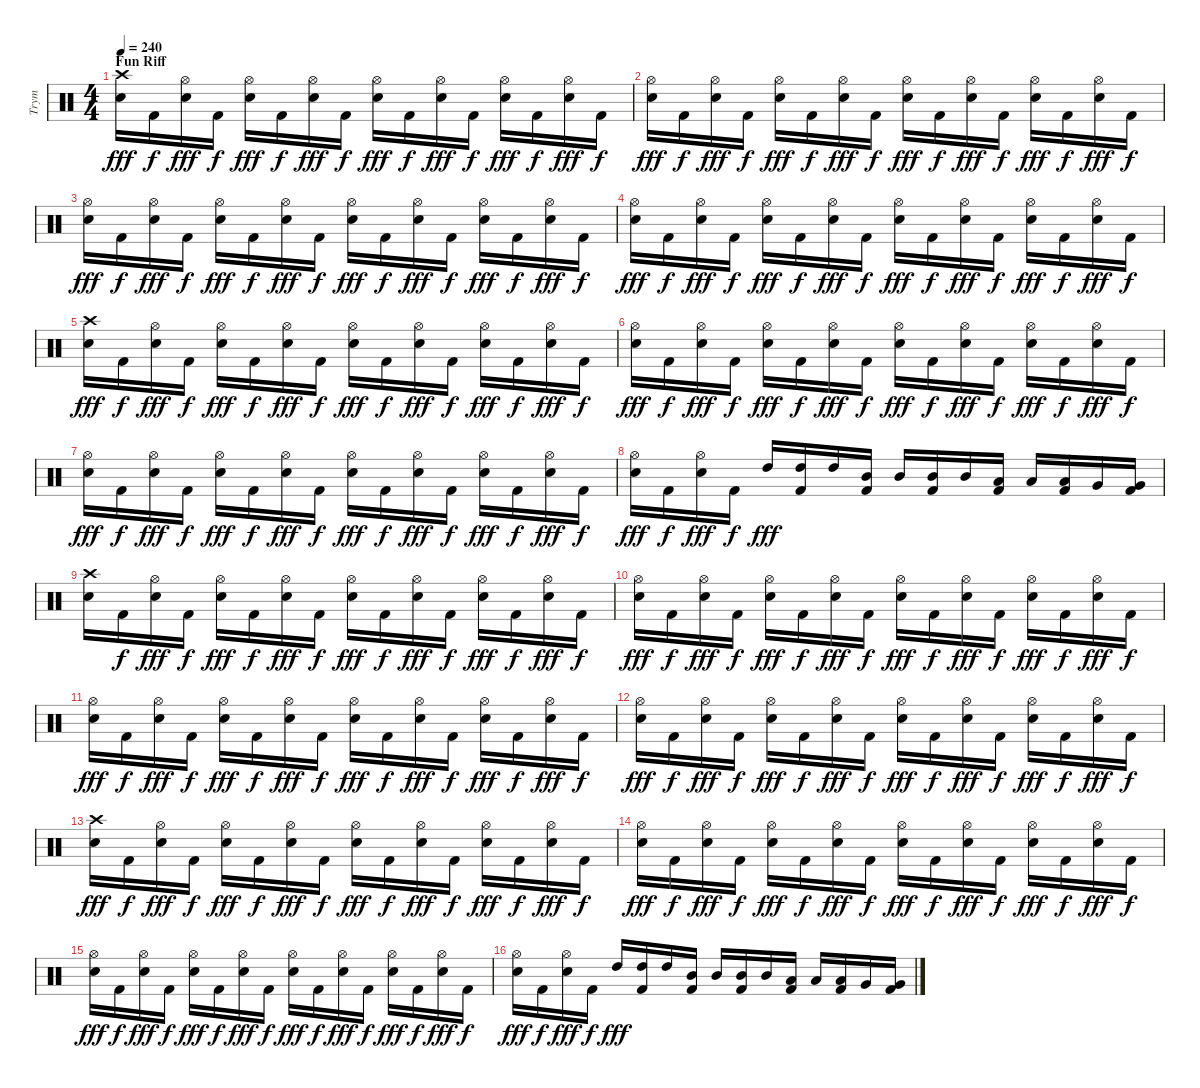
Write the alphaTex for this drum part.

\track ("Trym" "Trym") {instrument percussion}
\staff {score}
\articulation defaults
\ts (4 4)
\section ("" "Fun Riff")
\tempo 240
\clef neutral
\ks c
("Crash high (hit)" "Electric Snare (hit)").16{dy fff} "Kick (hit) 2".16{dy f} ("Hi-Hat (open)" "Electric Snare (hit)").16{dy fff} "Kick (hit) 2".16{dy f} ("Hi-Hat (open)" "Electric Snare (hit)").16{dy fff} "Kick (hit) 2".16{dy f} ("Hi-Hat (open)" "Electric Snare (hit)").16{dy fff} "Kick (hit) 2".16{dy f} ("Hi-Hat (open)" "Electric Snare (hit)").16{dy fff} "Kick (hit) 2".16{dy f} ("Hi-Hat (open)" "Electric Snare (hit)").16{dy fff} "Kick (hit) 2".16{dy f} ("Hi-Hat (open)" "Electric Snare (hit)").16{dy fff} "Kick (hit) 2".16{dy f} ("Hi-Hat (open)" "Electric Snare (hit)").16{dy fff} "Kick (hit) 2".16{dy f} |
("Hi-Hat (open)" "Electric Snare (hit)").16{dy fff} "Kick (hit) 2".16{dy f} ("Hi-Hat (open)" "Electric Snare (hit)").16{dy fff} "Kick (hit) 2".16{dy f} ("Hi-Hat (open)" "Electric Snare (hit)").16{dy fff} "Kick (hit) 2".16{dy f} ("Hi-Hat (open)" "Electric Snare (hit)").16{dy fff} "Kick (hit) 2".16{dy f} ("Hi-Hat (open)" "Electric Snare (hit)").16{dy fff} "Kick (hit) 2".16{dy f} ("Hi-Hat (open)" "Electric Snare (hit)").16{dy fff} "Kick (hit) 2".16{dy f} ("Hi-Hat (open)" "Electric Snare (hit)").16{dy fff} "Kick (hit) 2".16{dy f} ("Hi-Hat (open)" "Electric Snare (hit)").16{dy fff} "Kick (hit) 2".16{dy f} |
("Hi-Hat (open)" "Electric Snare (hit)").16{dy fff} "Kick (hit) 2".16{dy f} ("Hi-Hat (open)" "Electric Snare (hit)").16{dy fff} "Kick (hit) 2".16{dy f} ("Hi-Hat (open)" "Electric Snare (hit)").16{dy fff} "Kick (hit) 2".16{dy f} ("Hi-Hat (open)" "Electric Snare (hit)").16{dy fff} "Kick (hit) 2".16{dy f} ("Hi-Hat (open)" "Electric Snare (hit)").16{dy fff} "Kick (hit) 2".16{dy f} ("Hi-Hat (open)" "Electric Snare (hit)").16{dy fff} "Kick (hit) 2".16{dy f} ("Hi-Hat (open)" "Electric Snare (hit)").16{dy fff} "Kick (hit) 2".16{dy f} ("Hi-Hat (open)" "Electric Snare (hit)").16{dy fff} "Kick (hit) 2".16{dy f} |
("Hi-Hat (open)" "Electric Snare (hit)").16{dy fff} "Kick (hit) 2".16{dy f} ("Hi-Hat (open)" "Electric Snare (hit)").16{dy fff} "Kick (hit) 2".16{dy f} ("Hi-Hat (open)" "Electric Snare (hit)").16{dy fff} "Kick (hit) 2".16{dy f} ("Hi-Hat (open)" "Electric Snare (hit)").16{dy fff} "Kick (hit) 2".16{dy f} ("Hi-Hat (open)" "Electric Snare (hit)").16{dy fff} "Kick (hit) 2".16{dy f} ("Hi-Hat (open)" "Electric Snare (hit)").16{dy fff} "Kick (hit) 2".16{dy f} ("Hi-Hat (open)" "Electric Snare (hit)").16{dy fff} "Kick (hit) 2".16{dy f} ("Hi-Hat (open)" "Electric Snare (hit)").16{dy fff} "Kick (hit) 2".16{dy f} |
("Crash high (hit)" "Electric Snare (hit)").16{dy fff} "Kick (hit) 2".16{dy f} ("Hi-Hat (open)" "Electric Snare (hit)").16{dy fff} "Kick (hit) 2".16{dy f} ("Hi-Hat (open)" "Electric Snare (hit)").16{dy fff} "Kick (hit) 2".16{dy f} ("Hi-Hat (open)" "Electric Snare (hit)").16{dy fff} "Kick (hit) 2".16{dy f} ("Hi-Hat (open)" "Electric Snare (hit)").16{dy fff} "Kick (hit) 2".16{dy f} ("Hi-Hat (open)" "Electric Snare (hit)").16{dy fff} "Kick (hit) 2".16{dy f} ("Hi-Hat (open)" "Electric Snare (hit)").16{dy fff} "Kick (hit) 2".16{dy f} ("Hi-Hat (open)" "Electric Snare (hit)").16{dy fff} "Kick (hit) 2".16{dy f} |
("Hi-Hat (open)" "Electric Snare (hit)").16{dy fff} "Kick (hit) 2".16{dy f} ("Hi-Hat (open)" "Electric Snare (hit)").16{dy fff} "Kick (hit) 2".16{dy f} ("Hi-Hat (open)" "Electric Snare (hit)").16{dy fff} "Kick (hit) 2".16{dy f} ("Hi-Hat (open)" "Electric Snare (hit)").16{dy fff} "Kick (hit) 2".16{dy f} ("Hi-Hat (open)" "Electric Snare (hit)").16{dy fff} "Kick (hit) 2".16{dy f} ("Hi-Hat (open)" "Electric Snare (hit)").16{dy fff} "Kick (hit) 2".16{dy f} ("Hi-Hat (open)" "Electric Snare (hit)").16{dy fff} "Kick (hit) 2".16{dy f} ("Hi-Hat (open)" "Electric Snare (hit)").16{dy fff} "Kick (hit) 2".16{dy f} |
("Hi-Hat (open)" "Electric Snare (hit)").16{dy fff} "Kick (hit) 2".16{dy f} ("Hi-Hat (open)" "Electric Snare (hit)").16{dy fff} "Kick (hit) 2".16{dy f} ("Hi-Hat (open)" "Electric Snare (hit)").16{dy fff} "Kick (hit) 2".16{dy f} ("Hi-Hat (open)" "Electric Snare (hit)").16{dy fff} "Kick (hit) 2".16{dy f} ("Hi-Hat (open)" "Electric Snare (hit)").16{dy fff} "Kick (hit) 2".16{dy f} ("Hi-Hat (open)" "Electric Snare (hit)").16{dy fff} "Kick (hit) 2".16{dy f} ("Hi-Hat (open)" "Electric Snare (hit)").16{dy fff} "Kick (hit) 2".16{dy f} ("Hi-Hat (open)" "Electric Snare (hit)").16{dy fff} "Kick (hit) 2".16{dy f} |
("Hi-Hat (open)" "Electric Snare (hit)").16{dy fff} "Kick (hit) 2".16{dy f} ("Hi-Hat (open)" "Electric Snare (hit)").16{dy fff} "Kick (hit) 2".16{dy f} "High Tom (hit)".16{dy fff} ("High Tom (hit)" "Kick (hit) 2").16 "High Tom (hit)".16 ("Mid Tom (hit)" "Kick (hit) 2").16 "Mid Tom (hit)".16 ("Mid Tom (hit)" "Kick (hit) 2").16 "Mid Tom (hit)".16 ("Low Tom (hit)" "Kick (hit) 2").16 "Low Tom (hit)".16 ("Low Tom (hit)" "Kick (hit) 2").16 "Very Low Tom (hit)".16 ("Very Low Tom (hit)" "Kick (hit) 2").16 |
("Crash high (hit)" "Electric Snare (hit)").16 "Kick (hit) 2".16{dy f} ("Hi-Hat (open)" "Electric Snare (hit)").16{dy fff} "Kick (hit) 2".16{dy f} ("Hi-Hat (open)" "Electric Snare (hit)").16{dy fff} "Kick (hit) 2".16{dy f} ("Hi-Hat (open)" "Electric Snare (hit)").16{dy fff} "Kick (hit) 2".16{dy f} ("Hi-Hat (open)" "Electric Snare (hit)").16{dy fff} "Kick (hit) 2".16{dy f} ("Hi-Hat (open)" "Electric Snare (hit)").16{dy fff} "Kick (hit) 2".16{dy f} ("Hi-Hat (open)" "Electric Snare (hit)").16{dy fff} "Kick (hit) 2".16{dy f} ("Hi-Hat (open)" "Electric Snare (hit)").16{dy fff} "Kick (hit) 2".16{dy f} |
("Hi-Hat (open)" "Electric Snare (hit)").16{dy fff} "Kick (hit) 2".16{dy f} ("Hi-Hat (open)" "Electric Snare (hit)").16{dy fff} "Kick (hit) 2".16{dy f} ("Hi-Hat (open)" "Electric Snare (hit)").16{dy fff} "Kick (hit) 2".16{dy f} ("Hi-Hat (open)" "Electric Snare (hit)").16{dy fff} "Kick (hit) 2".16{dy f} ("Hi-Hat (open)" "Electric Snare (hit)").16{dy fff} "Kick (hit) 2".16{dy f} ("Hi-Hat (open)" "Electric Snare (hit)").16{dy fff} "Kick (hit) 2".16{dy f} ("Hi-Hat (open)" "Electric Snare (hit)").16{dy fff} "Kick (hit) 2".16{dy f} ("Hi-Hat (open)" "Electric Snare (hit)").16{dy fff} "Kick (hit) 2".16{dy f} |
("Hi-Hat (open)" "Electric Snare (hit)").16{dy fff} "Kick (hit) 2".16{dy f} ("Hi-Hat (open)" "Electric Snare (hit)").16{dy fff} "Kick (hit) 2".16{dy f} ("Hi-Hat (open)" "Electric Snare (hit)").16{dy fff} "Kick (hit) 2".16{dy f} ("Hi-Hat (open)" "Electric Snare (hit)").16{dy fff} "Kick (hit) 2".16{dy f} ("Hi-Hat (open)" "Electric Snare (hit)").16{dy fff} "Kick (hit) 2".16{dy f} ("Hi-Hat (open)" "Electric Snare (hit)").16{dy fff} "Kick (hit) 2".16{dy f} ("Hi-Hat (open)" "Electric Snare (hit)").16{dy fff} "Kick (hit) 2".16{dy f} ("Hi-Hat (open)" "Electric Snare (hit)").16{dy fff} "Kick (hit) 2".16{dy f} |
("Hi-Hat (open)" "Electric Snare (hit)").16{dy fff} "Kick (hit) 2".16{dy f} ("Hi-Hat (open)" "Electric Snare (hit)").16{dy fff} "Kick (hit) 2".16{dy f} ("Hi-Hat (open)" "Electric Snare (hit)").16{dy fff} "Kick (hit) 2".16{dy f} ("Hi-Hat (open)" "Electric Snare (hit)").16{dy fff} "Kick (hit) 2".16{dy f} ("Hi-Hat (open)" "Electric Snare (hit)").16{dy fff} "Kick (hit) 2".16{dy f} ("Hi-Hat (open)" "Electric Snare (hit)").16{dy fff} "Kick (hit) 2".16{dy f} ("Hi-Hat (open)" "Electric Snare (hit)").16{dy fff} "Kick (hit) 2".16{dy f} ("Hi-Hat (open)" "Electric Snare (hit)").16{dy fff} "Kick (hit) 2".16{dy f} |
("Crash high (hit)" "Electric Snare (hit)").16{dy fff} "Kick (hit) 2".16{dy f} ("Hi-Hat (open)" "Electric Snare (hit)").16{dy fff} "Kick (hit) 2".16{dy f} ("Hi-Hat (open)" "Electric Snare (hit)").16{dy fff} "Kick (hit) 2".16{dy f} ("Hi-Hat (open)" "Electric Snare (hit)").16{dy fff} "Kick (hit) 2".16{dy f} ("Hi-Hat (open)" "Electric Snare (hit)").16{dy fff} "Kick (hit) 2".16{dy f} ("Hi-Hat (open)" "Electric Snare (hit)").16{dy fff} "Kick (hit) 2".16{dy f} ("Hi-Hat (open)" "Electric Snare (hit)").16{dy fff} "Kick (hit) 2".16{dy f} ("Hi-Hat (open)" "Electric Snare (hit)").16{dy fff} "Kick (hit) 2".16{dy f} |
("Hi-Hat (open)" "Electric Snare (hit)").16{dy fff} "Kick (hit) 2".16{dy f} ("Hi-Hat (open)" "Electric Snare (hit)").16{dy fff} "Kick (hit) 2".16{dy f} ("Hi-Hat (open)" "Electric Snare (hit)").16{dy fff} "Kick (hit) 2".16{dy f} ("Hi-Hat (open)" "Electric Snare (hit)").16{dy fff} "Kick (hit) 2".16{dy f} ("Hi-Hat (open)" "Electric Snare (hit)").16{dy fff} "Kick (hit) 2".16{dy f} ("Hi-Hat (open)" "Electric Snare (hit)").16{dy fff} "Kick (hit) 2".16{dy f} ("Hi-Hat (open)" "Electric Snare (hit)").16{dy fff} "Kick (hit) 2".16{dy f} ("Hi-Hat (open)" "Electric Snare (hit)").16{dy fff} "Kick (hit) 2".16{dy f} |
("Hi-Hat (open)" "Electric Snare (hit)").16{dy fff} "Kick (hit) 2".16{dy f} ("Hi-Hat (open)" "Electric Snare (hit)").16{dy fff} "Kick (hit) 2".16{dy f} ("Hi-Hat (open)" "Electric Snare (hit)").16{dy fff} "Kick (hit) 2".16{dy f} ("Hi-Hat (open)" "Electric Snare (hit)").16{dy fff} "Kick (hit) 2".16{dy f} ("Hi-Hat (open)" "Electric Snare (hit)").16{dy fff} "Kick (hit) 2".16{dy f} ("Hi-Hat (open)" "Electric Snare (hit)").16{dy fff} "Kick (hit) 2".16{dy f} ("Hi-Hat (open)" "Electric Snare (hit)").16{dy fff} "Kick (hit) 2".16{dy f} ("Hi-Hat (open)" "Electric Snare (hit)").16{dy fff} "Kick (hit) 2".16{dy f} |
("Hi-Hat (open)" "Electric Snare (hit)").16{dy fff} "Kick (hit) 2".16{dy f} ("Hi-Hat (open)" "Electric Snare (hit)").16{dy fff} "Kick (hit) 2".16{dy f} "High Tom (hit)".16{dy fff} ("High Tom (hit)" "Kick (hit) 2").16 "High Tom (hit)".16 ("Mid Tom (hit)" "Kick (hit) 2").16 "Mid Tom (hit)".16 ("Mid Tom (hit)" "Kick (hit) 2").16 "Mid Tom (hit)".16 ("Low Tom (hit)" "Kick (hit) 2").16 "Low Tom (hit)".16 ("Low Tom (hit)" "Kick (hit) 2").16 "Very Low Tom (hit)".16 ("Very Low Tom (hit)" "Kick (hit) 2").16
